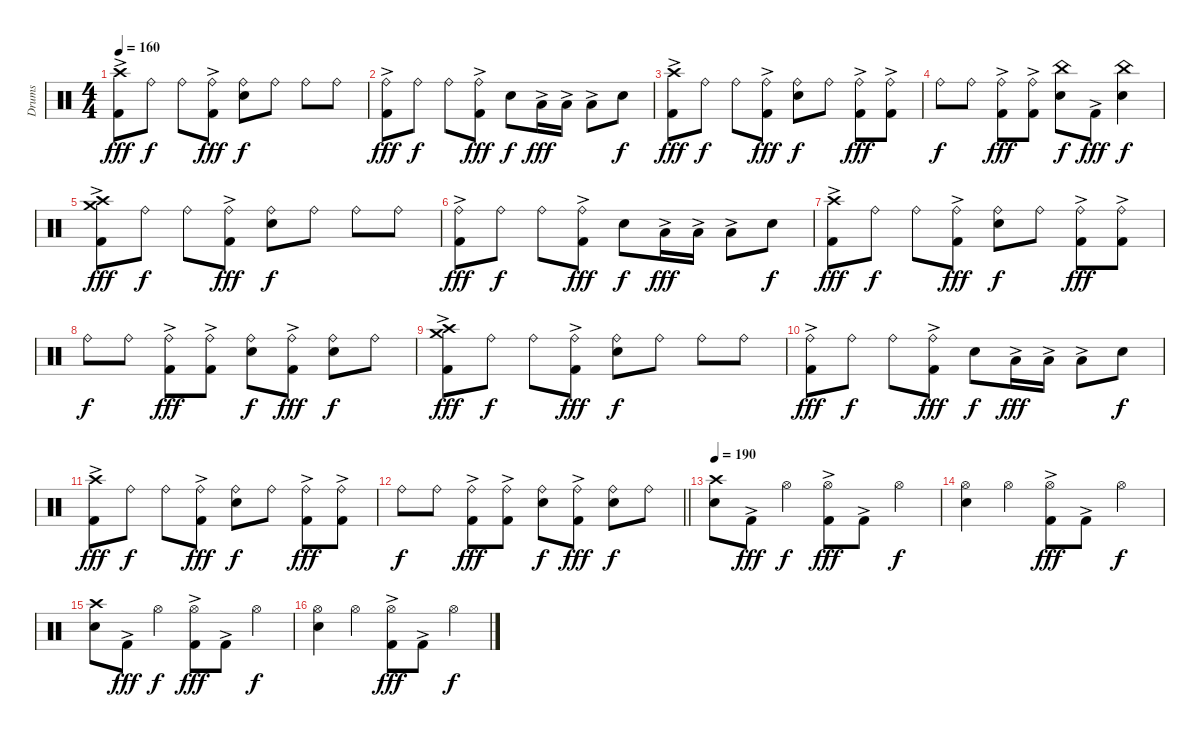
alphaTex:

\track ("Drums" "Drums") {instrument percussion}
\staff {score}
\articulation defaults
\ts (4 4)
\tempo 160
\clef neutral
\ks c
("Crash high (hit)" "Kick (hit) 2"{ac}).8{dy fff} "Ride (bell)".8{dy f} "Ride (bell)".8 ("Ride (bell)" "Kick (hit) 2"{ac}).8{dy fff} ("Ride (bell)" "Snare (hit) 2").8{dy f} "Ride (bell)".8 "Ride (bell)".8 "Ride (bell)".8 |
("Ride (bell)" "Kick (hit) 2"{ac}).8{dy fff} "Ride (bell)".8{dy f} "Ride (bell)".8 ("Ride (bell)" "Kick (hit) 2"{ac}).8{dy fff} "Snare (hit) 2".8{dy f} "Low Tom (hit)"{ac}.16{dy fff} "Low Tom (hit)"{ac}.16 "Low Tom (hit)"{ac}.8 "Snare (hit) 2".8{dy f} |
("Crash high (hit)" "Kick (hit) 2"{ac}).8{dy fff} "Ride (bell)".8{dy f} "Ride (bell)".8 ("Ride (bell)" "Kick (hit) 2"{ac}).8{dy fff} ("Ride (bell)" "Snare (hit) 2").8{dy f} "Ride (bell)".8 ("Ride (bell)" "Kick (hit) 2"{ac}).8{dy fff} ("Ride (bell)" "Kick (hit) 2"{ac}).8 |
"Ride (bell)".8{dy f} "Ride (bell)".8 ("Ride (bell)" "Kick (hit) 2"{ac}).8{dy fff} ("Ride (bell)" "Kick (hit) 2"{ac}).8 ("China (hit)" "Snare (hit) 2").8{dy f} "Kick (hit) 2"{ac}.8{dy fff} ("China (hit)" "Snare (hit) 2").4{dy f} |
("Crash high (hit)" "Crash medium (hit)" "Kick (hit) 2"{ac}).8{dy fff} "Ride (bell)".8{dy f} "Ride (bell)".8 ("Ride (bell)" "Kick (hit) 2"{ac}).8{dy fff} ("Ride (bell)" "Snare (hit) 2").8{dy f} "Ride (bell)".8 "Ride (bell)".8 "Ride (bell)".8 |
("Ride (bell)" "Kick (hit) 2"{ac}).8{dy fff} "Ride (bell)".8{dy f} "Ride (bell)".8 ("Ride (bell)" "Kick (hit) 2"{ac}).8{dy fff} "Snare (hit) 2".8{dy f} "Low Tom (hit)"{ac}.16{dy fff} "Low Tom (hit)"{ac}.16 "Low Tom (hit)"{ac}.8 "Snare (hit) 2".8{dy f} |
("Crash high (hit)" "Kick (hit) 2"{ac}).8{dy fff} "Ride (bell)".8{dy f} "Ride (bell)".8 ("Ride (bell)" "Kick (hit) 2"{ac}).8{dy fff} ("Ride (bell)" "Snare (hit) 2").8{dy f} "Ride (bell)".8 ("Ride (bell)" "Kick (hit) 2"{ac}).8{dy fff} ("Ride (bell)" "Kick (hit) 2"{ac}).8 |
"Ride (bell)".8{dy f} "Ride (bell)".8 ("Ride (bell)" "Kick (hit) 2"{ac}).8{dy fff} ("Ride (bell)" "Kick (hit) 2"{ac}).8 ("Ride (bell)" "Snare (hit) 2").8{dy f} ("Ride (bell)" "Kick (hit) 2"{ac}).8{dy fff} ("Ride (bell)" "Snare (hit) 2").8{dy f} "Ride (bell)".8 |
("Crash high (hit)" "Crash medium (hit)" "Kick (hit) 2"{ac}).8{dy fff} "Ride (bell)".8{dy f} "Ride (bell)".8 ("Ride (bell)" "Kick (hit) 2"{ac}).8{dy fff} ("Ride (bell)" "Snare (hit) 2").8{dy f} "Ride (bell)".8 "Ride (bell)".8 "Ride (bell)".8 |
("Ride (bell)" "Kick (hit) 2"{ac}).8{dy fff} "Ride (bell)".8{dy f} "Ride (bell)".8 ("Ride (bell)" "Kick (hit) 2"{ac}).8{dy fff} "Snare (hit) 2".8{dy f} "Low Tom (hit)"{ac}.16{dy fff} "Low Tom (hit)"{ac}.16 "Low Tom (hit)"{ac}.8 "Snare (hit) 2".8{dy f} |
("Crash high (hit)" "Kick (hit) 2"{ac}).8{dy fff} "Ride (bell)".8{dy f} "Ride (bell)".8 ("Ride (bell)" "Kick (hit) 2"{ac}).8{dy fff} ("Ride (bell)" "Snare (hit) 2").8{dy f} "Ride (bell)".8 ("Ride (bell)" "Kick (hit) 2"{ac}).8{dy fff} ("Ride (bell)" "Kick (hit) 2"{ac}).8 |
\barLineRight lightlight "Ride (bell)".8{dy f} "Ride (bell)".8
("Ride (bell)" "Kick (hit) 2"{ac}).8{dy fff} ("Ride (bell)" "Kick (hit) 2"{ac}).8 ("Ride (bell)" "Snare (hit) 2").8{dy f} ("Ride (bell)" "Kick (hit) 2"{ac}).8{dy fff} ("Ride (bell)" "Snare (hit) 2").8{dy f} "Ride (bell)".8 |
\tempo 190
("Crash high (hit)" "Snare (hit) 2").8 "Kick (hit) 2"{ac}.8{dy fff} "Hi-Hat (open)".4{dy f} ("Hi-Hat (open)" "Kick (hit) 2"{ac}).8{dy fff} "Kick (hit) 2"{ac}.8 "Hi-Hat (open)".4{dy f} |
("Hi-Hat (open)" "Snare (hit) 2").4 "Hi-Hat (open)".4 ("Hi-Hat (open)" "Kick (hit) 2"{ac}).8{dy fff} "Kick (hit) 2"{ac}.8 "Hi-Hat (open)".4{dy f} |
("Crash high (hit)" "Snare (hit) 2").8 "Kick (hit) 2"{ac}.8{dy fff} "Hi-Hat (open)".4{dy f} ("Hi-Hat (open)" "Kick (hit) 2"{ac}).8{dy fff} "Kick (hit) 2"{ac}.8 "Hi-Hat (open)".4{dy f} |
("Hi-Hat (open)" "Snare (hit) 2").4 "Hi-Hat (open)".4 ("Hi-Hat (open)" "Kick (hit) 2"{ac}).8{dy fff} "Kick (hit) 2"{ac}.8 "Hi-Hat (open)".4{dy f}
